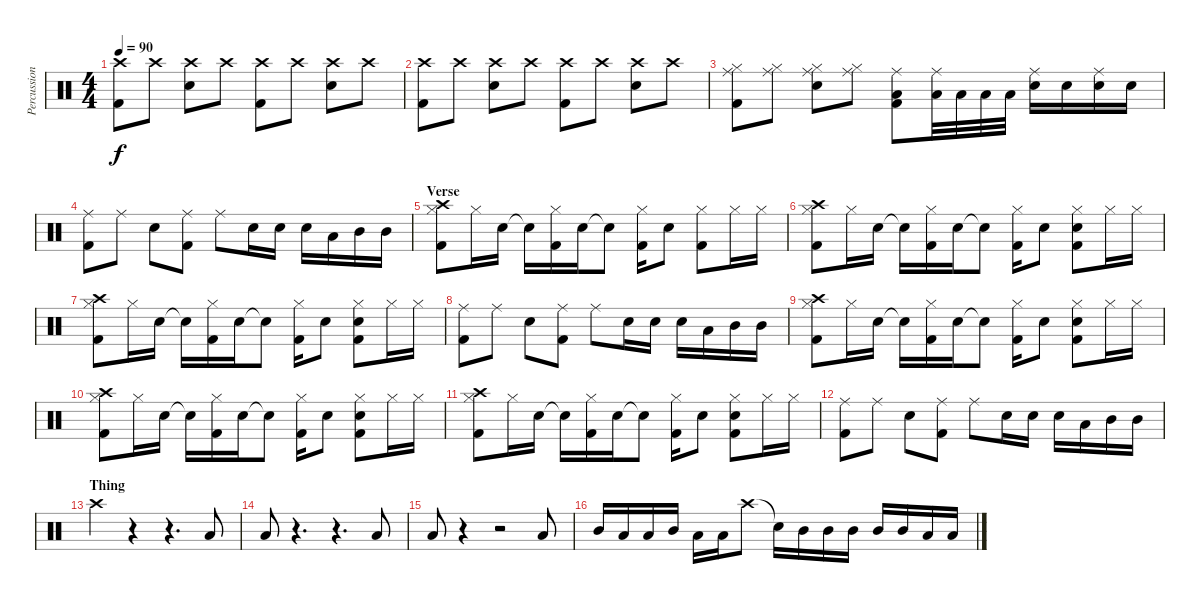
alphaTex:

\track ("Percussion" "Percussion") {instrument percussion}
\staff {score}
\articulation defaults
\ts (4 4)
\tempo 90
\clef neutral
\ks c
("Crash high (hit)" "Kick (hit) 2").8{dy f} "Crash high (hit)".8 ("Crash high (hit)" "Electric Snare (hit)").8 "Crash high (hit)".8 ("Crash high (hit)" "Kick (hit) 2").8 "Crash high (hit)".8 ("Crash high (hit)" "Electric Snare (hit)").8 "Crash high (hit)".8 |
("Crash high (hit)" "Kick (hit) 2").8 "Crash high (hit)".8 ("Crash high (hit)" "Electric Snare (hit)").8 "Crash high (hit)".8 ("Crash high (hit)" "Kick (hit) 2").8 "Crash high (hit)".8 ("Crash high (hit)" "Electric Snare (hit)").8 "Crash high (hit)".8 |
("Ride (middle)" "Hi-Hat (closed)" "Kick (hit) 2").8 ("Ride (middle)" "Hi-Hat (closed)").8 ("Hi-Hat (closed)" "Ride (middle)" "Electric Snare (hit)").8 ("Ride (middle)" "Hi-Hat (closed)").8 ("Ride (middle)" "Low Tom (hit)" "Kick (hit) 2").8 ("Ride (middle)" "Low Tom (hit)").32 "Low Tom (hit)".32 "Low Tom (hit)".32 "Low Tom (hit)".32 ("Ride (middle)" "Electric Snare (hit)").16 "Electric Snare (hit)".16 ("Ride (middle)" "Electric Snare (hit)").16 "Electric Snare (hit)".16 |
("Ride (middle)" "Kick (hit) 2").8 "Ride (middle)".8 "Electric Snare (hit)".8 ("Ride (middle)" "Kick (hit) 2").8 "Ride (middle)".8 "Electric Snare (hit)".16 "Electric Snare (hit)".16 "Electric Snare (hit)".16 "Low Tom (hit)".16 "Mid Tom (hit)".16 "Mid Tom (hit)".16 |
\section ("" "Verse")
("Crash high (hit)" "Hi-Hat (closed)" "Kick (hit) 2").8 "Hi-Hat (closed)".16 "Electric Snare (hit)".16 "Snare (hit)"{t}.16 ("Hi-Hat (closed)" "Kick (hit) 2").16 "Electric Snare (hit)".16 "Snare (hit)"{t}.8 ("Hi-Hat (closed)" "Kick (hit) 2").16 "Electric Snare (hit)".8 ("Hi-Hat (closed)" "Kick (hit) 2").8 "Hi-Hat (closed)".16 "Hi-Hat (closed)".16 |
("Crash high (hit)" "Hi-Hat (closed)" "Kick (hit) 2").8 "Hi-Hat (closed)".16 "Electric Snare (hit)".16 "Snare (hit)"{t}.16 ("Hi-Hat (closed)" "Kick (hit) 2").16 "Electric Snare (hit)".16 "Snare (hit)"{t}.8 ("Hi-Hat (closed)" "Kick (hit) 2").16 "Electric Snare (hit)".8 ("Hi-Hat (closed)" "Electric Snare (hit)" "Kick (hit) 2").8 "Hi-Hat (closed)".16 "Hi-Hat (closed)".16 |
("Crash high (hit)" "Hi-Hat (closed)" "Kick (hit) 2").8 "Hi-Hat (closed)".16 "Electric Snare (hit)".16 "Snare (hit)"{t}.16 ("Hi-Hat (closed)" "Kick (hit) 2").16 "Electric Snare (hit)".16 "Snare (hit)"{t}.8 ("Hi-Hat (closed)" "Kick (hit) 2").16 "Electric Snare (hit)".8 ("Hi-Hat (closed)" "Electric Snare (hit)" "Kick (hit) 2").8 "Hi-Hat (closed)".16 "Hi-Hat (closed)".16 |
("Ride (middle)" "Kick (hit) 2").8 "Ride (middle)".8 "Electric Snare (hit)".8 ("Ride (middle)" "Kick (hit) 2").8 "Ride (middle)".8 "Electric Snare (hit)".16 "Electric Snare (hit)".16 "Electric Snare (hit)".16 "Low Tom (hit)".16 "Mid Tom (hit)".16 "Mid Tom (hit)".16 |
("Crash high (hit)" "Hi-Hat (closed)" "Kick (hit) 2").8 "Hi-Hat (closed)".16 "Electric Snare (hit)".16 "Snare (hit)"{t}.16 ("Hi-Hat (closed)" "Kick (hit) 2").16 "Electric Snare (hit)".16 "Snare (hit)"{t}.8 ("Hi-Hat (closed)" "Kick (hit) 2").16 "Electric Snare (hit)".8 ("Hi-Hat (closed)" "Electric Snare (hit)" "Kick (hit) 2").8 "Hi-Hat (closed)".16 "Hi-Hat (closed)".16 |
("Crash high (hit)" "Hi-Hat (closed)" "Kick (hit) 2").8 "Hi-Hat (closed)".16 "Electric Snare (hit)".16 "Snare (hit)"{t}.16 ("Hi-Hat (closed)" "Kick (hit) 2").16 "Electric Snare (hit)".16 "Snare (hit)"{t}.8 ("Hi-Hat (closed)" "Kick (hit) 2").16 "Electric Snare (hit)".8 ("Hi-Hat (closed)" "Electric Snare (hit)" "Kick (hit) 2").8 "Hi-Hat (closed)".16 "Hi-Hat (closed)".16 |
("Crash high (hit)" "Hi-Hat (closed)" "Kick (hit) 2").8 "Hi-Hat (closed)".16 "Electric Snare (hit)".16 "Snare (hit)"{t}.16 ("Hi-Hat (closed)" "Kick (hit) 2").16 "Electric Snare (hit)".16 "Snare (hit)"{t}.8 ("Hi-Hat (closed)" "Kick (hit) 2").16 "Electric Snare (hit)".8 ("Hi-Hat (closed)" "Electric Snare (hit)" "Kick (hit) 2").8 "Hi-Hat (closed)".16 "Hi-Hat (closed)".16 |
("Ride (middle)" "Kick (hit) 2").8 "Ride (middle)".8 "Electric Snare (hit)".8 ("Ride (middle)" "Kick (hit) 2").8 "Ride (middle)".8 "Electric Snare (hit)".16 "Electric Snare (hit)".16 "Electric Snare (hit)".16 "Low Tom (hit)".16 "Mid Tom (hit)".16 "Mid Tom (hit)".16 |
\section ("" "Thing")
"Crash high (hit)".4 r.4 r.4{d} "Low Tom (hit)".8 |
"Low Tom (hit)".8 r.4{d} r.4{d} "Low Tom (hit)".8 |
"Low Tom (hit)".8 r.4 r.2 "Low Tom (hit)".8 |
"Mid Tom (hit)".16 "Low Tom (hit)".16 "Low Tom (hit)".16 "Mid Tom (hit)".16 "Low Tom (hit)".16 "Low Tom (hit)".16 "Crash high (hit)".8 "Snare (hit)"{t}.16 "Mid Tom (hit)".16 "Mid Tom (hit)".16 "Mid Tom (hit)".16 "Mid Tom (hit)".16 "Mid Tom (hit)".16 "Low Tom (hit)".16 "Low Tom (hit)".16
